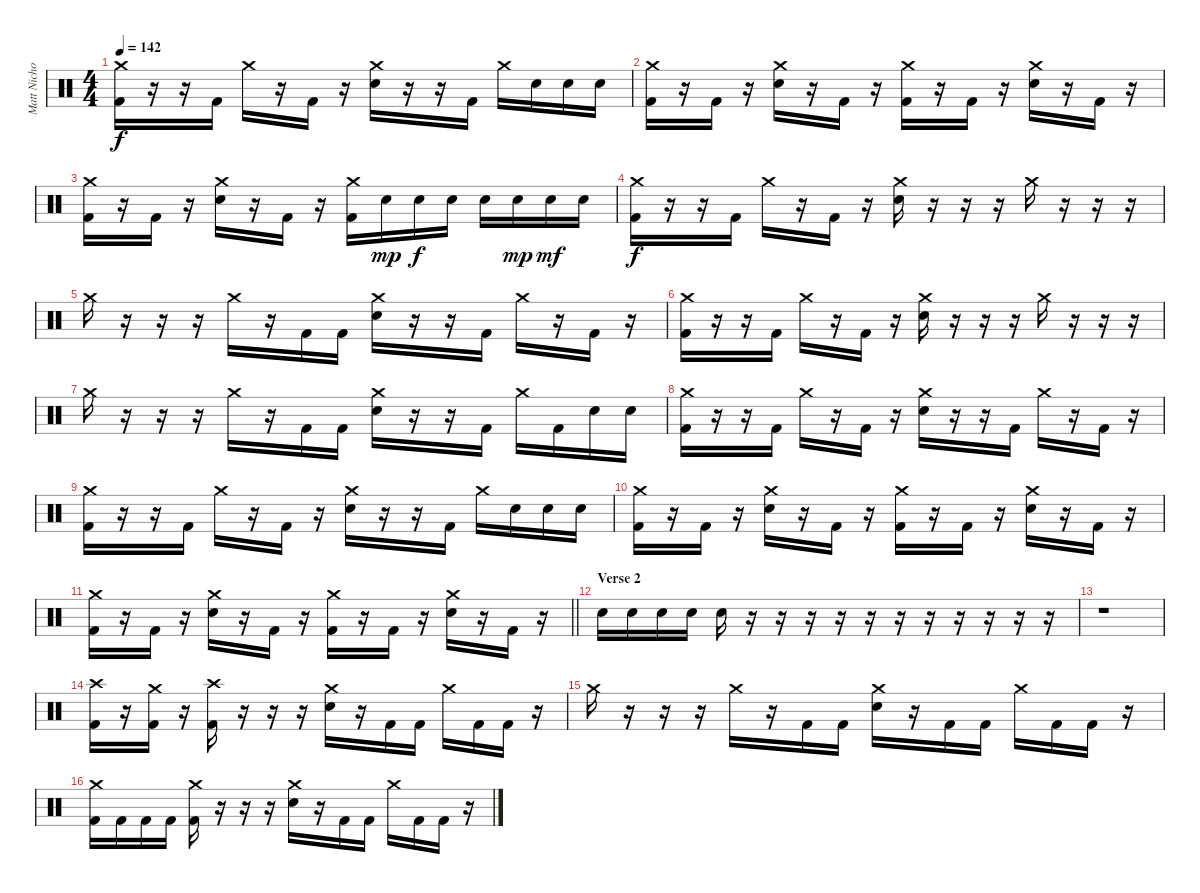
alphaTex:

\track ("Matt Nicholls" "Matt Nicho") {instrument percussion}
\staff {score}
\articulation defaults
\ts (4 4)
\tempo 142
\clef neutral
\ks c
("Crash medium (hit)" "Kick (hit) 2").16{dy f} r.16 r.16 "Kick (hit) 2".16 "Crash medium (hit)".16 r.16 "Kick (hit) 2".16 r.16 ("Crash medium (hit)" "Electric Snare (hit)").16 r.16 r.16 "Kick (hit) 2".16 "Crash medium (hit)".16 "Electric Snare (hit)".16 "Electric Snare (hit)".16 "Electric Snare (hit)".16 |
("Crash medium (hit)" "Kick (hit) 2").16 r.16 "Kick (hit) 2".16 r.16 ("Crash medium (hit)" "Electric Snare (hit)").16 r.16 "Kick (hit) 2".16 r.16 ("Crash medium (hit)" "Kick (hit) 2").16 r.16 "Kick (hit) 2".16 r.16 ("Crash medium (hit)" "Electric Snare (hit)").16 r.16 "Kick (hit) 2".16 r.16 |
("Crash medium (hit)" "Kick (hit) 2").16 r.16 "Kick (hit) 2".16 r.16 ("Crash medium (hit)" "Electric Snare (hit)").16 r.16 "Kick (hit) 2".16 r.16 ("Crash medium (hit)" "Kick (hit) 2").16 "Electric Snare (hit)".16{dy mp} "Electric Snare (hit)".16{dy f} "Electric Snare (hit)".16 "Electric Snare (hit)".16 "Electric Snare (hit)".16{dy mp} "Electric Snare (hit)".16{dy mf} "Electric Snare (hit)".16 |
("Crash medium (hit)" "Kick (hit) 2").16{dy f} r.16 r.16 "Kick (hit) 2".16 "Crash medium (hit)".16 r.16 "Kick (hit) 2".16 r.16 ("Crash medium (hit)" "Electric Snare (hit)").16 r.16 r.16 r.16 "Crash medium (hit)".16 r.16 r.16 r.16 |
"Crash medium (hit)".16 r.16 r.16 r.16 "Crash medium (hit)".16 r.16 "Kick (hit) 2".16 "Kick (hit) 2".16 ("Crash medium (hit)" "Electric Snare (hit)").16 r.16 r.16 "Kick (hit) 2".16 "Crash medium (hit)".16 r.16 "Kick (hit) 2".16 r.16 |
("Crash medium (hit)" "Kick (hit) 2").16 r.16 r.16 "Kick (hit) 2".16 "Crash medium (hit)".16 r.16 "Kick (hit) 2".16 r.16 ("Crash medium (hit)" "Electric Snare (hit)").16 r.16 r.16 r.16 "Crash medium (hit)".16 r.16 r.16 r.16 |
"Crash medium (hit)".16 r.16 r.16 r.16 "Crash medium (hit)".16 r.16 "Kick (hit) 2".16 "Kick (hit) 2".16 ("Crash medium (hit)" "Electric Snare (hit)").16 r.16 r.16 "Kick (hit) 2".16 "Crash medium (hit)".16 "Kick (hit) 2".16 "Electric Snare (hit)".16 "Electric Snare (hit)".16 |
("Crash medium (hit)" "Kick (hit) 2").16 r.16 r.16 "Kick (hit) 2".16 "Crash medium (hit)".16 r.16 "Kick (hit) 2".16 r.16 ("Crash medium (hit)" "Electric Snare (hit)").16 r.16 r.16 "Kick (hit) 2".16 "Crash medium (hit)".16 r.16 "Kick (hit) 2".16 r.16 |
("Crash medium (hit)" "Kick (hit) 2").16 r.16 r.16 "Kick (hit) 2".16 "Crash medium (hit)".16 r.16 "Kick (hit) 2".16 r.16 ("Crash medium (hit)" "Electric Snare (hit)").16 r.16 r.16 "Kick (hit) 2".16 "Crash medium (hit)".16 "Electric Snare (hit)".16 "Electric Snare (hit)".16 "Electric Snare (hit)".16 |
("Crash medium (hit)" "Kick (hit) 2").16 r.16 "Kick (hit) 2".16 r.16 ("Crash medium (hit)" "Electric Snare (hit)").16 r.16 "Kick (hit) 2".16 r.16 ("Crash medium (hit)" "Kick (hit) 2").16 r.16 "Kick (hit) 2".16 r.16 ("Crash medium (hit)" "Electric Snare (hit)").16 r.16 "Kick (hit) 2".16 r.16 |
\barLineRight lightlight
("Crash medium (hit)" "Kick (hit) 2").16 r.16 "Kick (hit) 2".16 r.16 ("Crash medium (hit)" "Electric Snare (hit)").16 r.16 "Kick (hit) 2".16 r.16 ("Crash medium (hit)" "Kick (hit) 2").16 r.16 "Kick (hit) 2".16 r.16 ("Crash medium (hit)" "Electric Snare (hit)").16 r.16 "Kick (hit) 2".16 r.16 |
\section ("" "Verse 2")
"Electric Snare (hit)".16 "Electric Snare (hit)".16 "Electric Snare (hit)".16 "Electric Snare (hit)".16 "Electric Snare (hit)".16 r.16 r.16 r.16 r.16 r.16 r.16 r.16 r.16 r.16 r.16 r.16 |
r.1 |
("Crash high (hit)" "Kick (hit) 2").16 r.16 ("Crash medium (hit)" "Kick (hit) 2").16 r.16 ("Crash high (hit)" "Kick (hit) 2").16 r.16 r.16 r.16 ("Crash medium (hit)" "Electric Snare (hit)").16 r.16 "Kick (hit) 2".16 "Kick (hit) 2".16 "Crash medium (hit)".16 "Kick (hit) 2".16 "Kick (hit) 2".16 r.16 |
"Crash medium (hit)".16 r.16 r.16 r.16 "Crash medium (hit)".16 r.16 "Kick (hit) 2".16 "Kick (hit) 2".16 ("Crash medium (hit)" "Electric Snare (hit)").16 r.16 "Kick (hit) 2".16 "Kick (hit) 2".16 "Crash medium (hit)".16 "Kick (hit) 2".16 "Kick (hit) 2".16 r.16 |
("Crash medium (hit)" "Kick (hit) 2").16 "Kick (hit) 2".16 "Kick (hit) 2".16 "Kick (hit) 2".16 ("Crash medium (hit)" "Kick (hit) 2").16 r.16 r.16 r.16 ("Crash medium (hit)" "Electric Snare (hit)").16 r.16 "Kick (hit) 2".16 "Kick (hit) 2".16 "Crash medium (hit)".16 "Kick (hit) 2".16 "Kick (hit) 2".16 r.16
